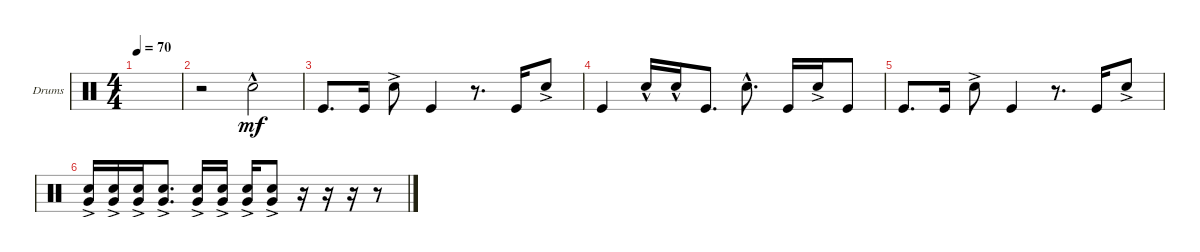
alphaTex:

\defaultSystemsLayout 4
\bracketExtendMode groupsimilarinstruments
\firstSystemTrackNameOrientation horizontal
\otherSystemsTrackNameOrientation horizontal
\track ("Drumkit" "Drums") {instrument percussion}
\staff {score}
\articulation defaults
\ts (4 4)
\tempo 70
\clef neutral
\ks c
|
r.2 "Snare (hit) 2"{hac}.2{dy mf} |
"Kick (hit)".8{d} "Kick (hit)".16 "Snare (hit) 2"{ac}.8 "Kick (hit)".4 r.8{d} "Kick (hit)".16 "Snare (hit) 2"{ac}.8 |
"Kick (hit)".4 "Snare (hit) 2"{hac}.16 "Snare (hit) 2"{hac}.16 "Kick (hit)".8{d} "Snare (hit) 2"{hac}.8{d} "Kick (hit)".16 "Snare (hit) 2"{ac}.16 "Kick (hit)".8 |
"Kick (hit)".8{d} "Kick (hit)".16 "Snare (hit) 2"{ac}.8 "Kick (hit)".4 r.8{d} "Kick (hit)".16 "Snare (hit) 2"{ac}.8 |
("Snare (hit) 2"{ac} "Very Low Tom (hit)").16 ("Snare (hit) 2"{ac} "Very Low Tom (hit)").16 ("Snare (hit) 2"{ac} "Very Low Tom (hit)").16 ("Snare (hit) 2"{ac} "Very Low Tom (hit)").8{d} ("Snare (hit) 2"{ac} "Very Low Tom (hit)").16 ("Snare (hit) 2"{ac} "Very Low Tom (hit)").16 ("Snare (hit) 2"{ac} "Very Low Tom (hit)").16 ("Snare (hit) 2"{ac} "Very Low Tom (hit)").8 r.16 r.16 r.16 r.8
